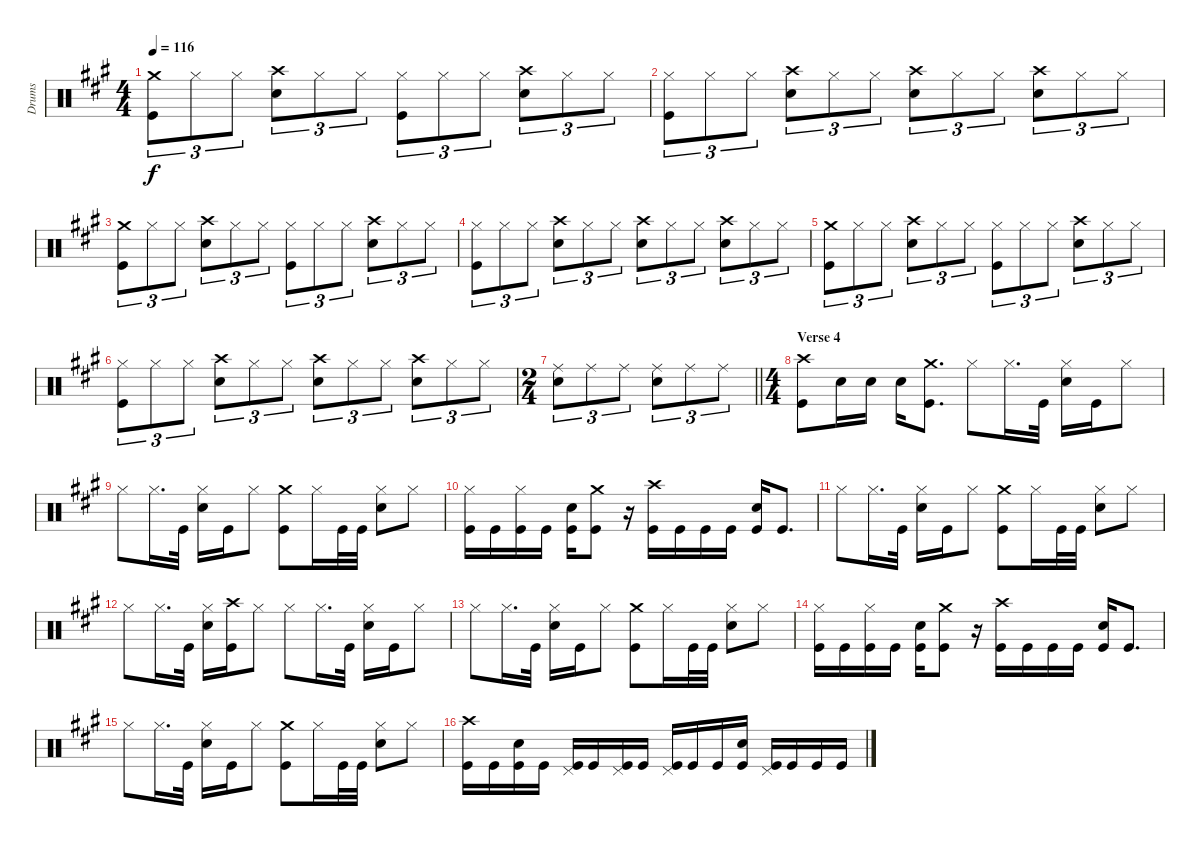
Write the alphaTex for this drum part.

\track ("Drums" "Drums") {instrument percussion}
\staff {score}
\articulation defaults
\ts (4 4)
\tempo 116
\clef neutral
\ks a
("Crash medium (hit)" "Kick (hit)").8{tu (3 2) dy f} "Hi-Hat (closed)".8{tu (3 2)} "Hi-Hat (closed)".8{tu (3 2)} ("Crash high (hit)" "Snare (hit) 2").8{tu (3 2)} "Hi-Hat (closed)".8{tu (3 2)} "Hi-Hat (closed)".8{tu (3 2)} ("Hi-Hat (closed)" "Kick (hit)").8{tu (3 2)} "Hi-Hat (closed)".8{tu (3 2)} "Hi-Hat (closed)".8{tu (3 2)} ("Crash high (hit)" "Snare (hit) 2").8{tu (3 2)} "Hi-Hat (closed)".8{tu (3 2)} "Hi-Hat (closed)".8{tu (3 2)} |
("Hi-Hat (closed)" "Kick (hit)").8{tu (3 2)} "Hi-Hat (closed)".8{tu (3 2)} "Hi-Hat (closed)".8{tu (3 2)} ("Crash high (hit)" "Snare (hit) 2").8{tu (3 2)} "Hi-Hat (closed)".8{tu (3 2)} "Hi-Hat (closed)".8{tu (3 2)} ("Crash high (hit)" "Snare (hit) 2").8{tu (3 2)} "Hi-Hat (closed)".8{tu (3 2)} "Hi-Hat (closed)".8{tu (3 2)} ("Crash high (hit)" "Snare (hit) 2").8{tu (3 2)} "Hi-Hat (closed)".8{tu (3 2)} "Hi-Hat (closed)".8{tu (3 2)} |
("Crash medium (hit)" "Kick (hit)").8{tu (3 2)} "Hi-Hat (closed)".8{tu (3 2)} "Hi-Hat (closed)".8{tu (3 2)} ("Crash high (hit)" "Snare (hit) 2").8{tu (3 2)} "Hi-Hat (closed)".8{tu (3 2)} "Hi-Hat (closed)".8{tu (3 2)} ("Hi-Hat (closed)" "Kick (hit)").8{tu (3 2)} "Hi-Hat (closed)".8{tu (3 2)} "Hi-Hat (closed)".8{tu (3 2)} ("Crash high (hit)" "Snare (hit) 2").8{tu (3 2)} "Hi-Hat (closed)".8{tu (3 2)} "Hi-Hat (closed)".8{tu (3 2)} |
("Hi-Hat (closed)" "Kick (hit)").8{tu (3 2)} "Hi-Hat (closed)".8{tu (3 2)} "Hi-Hat (closed)".8{tu (3 2)} ("Crash high (hit)" "Snare (hit) 2").8{tu (3 2)} "Hi-Hat (closed)".8{tu (3 2)} "Hi-Hat (closed)".8{tu (3 2)} ("Crash high (hit)" "Snare (hit) 2").8{tu (3 2)} "Hi-Hat (closed)".8{tu (3 2)} "Hi-Hat (closed)".8{tu (3 2)} ("Crash high (hit)" "Snare (hit) 2").8{tu (3 2)} "Hi-Hat (closed)".8{tu (3 2)} "Hi-Hat (closed)".8{tu (3 2)} |
("Crash medium (hit)" "Kick (hit)").8{tu (3 2)} "Hi-Hat (closed)".8{tu (3 2)} "Hi-Hat (closed)".8{tu (3 2)} ("Crash high (hit)" "Snare (hit) 2").8{tu (3 2)} "Hi-Hat (closed)".8{tu (3 2)} "Hi-Hat (closed)".8{tu (3 2)} ("Hi-Hat (closed)" "Kick (hit)").8{tu (3 2)} "Hi-Hat (closed)".8{tu (3 2)} "Hi-Hat (closed)".8{tu (3 2)} ("Crash high (hit)" "Snare (hit) 2").8{tu (3 2)} "Hi-Hat (closed)".8{tu (3 2)} "Hi-Hat (closed)".8{tu (3 2)} |
("Hi-Hat (closed)" "Kick (hit)").8{tu (3 2)} "Hi-Hat (closed)".8{tu (3 2)} "Hi-Hat (closed)".8{tu (3 2)} ("Crash high (hit)" "Snare (hit) 2").8{tu (3 2)} "Hi-Hat (closed)".8{tu (3 2)} "Hi-Hat (closed)".8{tu (3 2)} ("Crash high (hit)" "Snare (hit) 2").8{tu (3 2)} "Hi-Hat (closed)".8{tu (3 2)} "Hi-Hat (closed)".8{tu (3 2)} ("Crash high (hit)" "Snare (hit) 2").8{tu (3 2)} "Hi-Hat (closed)".8{tu (3 2)} "Hi-Hat (closed)".8{tu (3 2)} |
\ts (2 4)
\barLineRight lightlight
("Ride (middle)" "Snare (hit) 2").8{tu (3 2)} "Ride (middle)".8{tu (3 2)} "Ride (middle)".8{tu (3 2)} ("Ride (middle)" "Snare (hit) 2").8{tu (3 2)} "Ride (middle)".8{tu (3 2)} "Ride (middle)".8{tu (3 2)} |
\ts (4 4)
\section ("" "Verse 4")
("Crash high (hit)" "Kick (hit)").8 "Snare (hit) 2".16 "Snare (hit) 2".16 "Snare (hit) 2".16 ("Crash medium (hit)" "Kick (hit)").8{d} "Hi-Hat (closed)".8 "Hi-Hat (closed)".16{d} "Kick (hit)".32 ("Hi-Hat (closed)" "Snare (hit) 2").16 "Kick (hit)".16 "Hi-Hat (closed)".8 |
"Hi-Hat (closed)".8 "Hi-Hat (closed)".16{d} "Kick (hit)".32 ("Hi-Hat (closed)" "Snare (hit) 2").16 "Kick (hit)".16 "Hi-Hat (closed)".8 ("Crash medium (hit)" "Kick (hit)").8 "Hi-Hat (closed)".16 "Kick (hit)".32 "Kick (hit)".32 ("Hi-Hat (closed)" "Snare (hit) 2").8 "Hi-Hat (closed)".8 |
("Hi-Hat (closed)" "Kick (hit)").16 "Kick (hit)".16 ("Hi-Hat (closed)" "Kick (hit)").16 "Kick (hit)".16 ("Snare (hit) 2" "Kick (hit)").16 ("Crash medium (hit)" "Kick (hit)").8 r.16 ("Crash high (hit)" "Kick (hit)").16 "Kick (hit)".16 "Kick (hit)".16 "Kick (hit)".16 ("Snare (hit) 2" "Kick (hit)").16 "Kick (hit)".8{d} |
"Hi-Hat (closed)".8 "Hi-Hat (closed)".16{d} "Kick (hit)".32 ("Hi-Hat (closed)" "Snare (hit) 2").16 "Kick (hit)".16 "Hi-Hat (closed)".8 ("Crash medium (hit)" "Kick (hit)").8 "Hi-Hat (closed)".16 "Kick (hit)".32 "Kick (hit)".32 ("Hi-Hat (closed)" "Snare (hit) 2").8 "Hi-Hat (closed)".8 |
"Hi-Hat (closed)".8 "Hi-Hat (closed)".16{d} "Kick (hit)".32 ("Hi-Hat (closed)" "Snare (hit) 2").16 ("Crash high (hit)" "Kick (hit)").16 "Hi-Hat (closed)".8 "Hi-Hat (closed)".8 "Hi-Hat (closed)".16{d} "Kick (hit)".32 ("Hi-Hat (closed)" "Snare (hit) 2").16 "Kick (hit)".16 "Hi-Hat (closed)".8 |
"Hi-Hat (closed)".8 "Hi-Hat (closed)".16{d} "Kick (hit)".32 ("Hi-Hat (closed)" "Snare (hit) 2").16 "Kick (hit)".16 "Hi-Hat (closed)".8 ("Crash medium (hit)" "Kick (hit)").8 "Hi-Hat (closed)".16 "Kick (hit)".32 "Kick (hit)".32 ("Hi-Hat (closed)" "Snare (hit) 2").8 "Hi-Hat (closed)".8 |
("Hi-Hat (closed)" "Kick (hit)").16 "Kick (hit)".16 ("Hi-Hat (closed)" "Kick (hit)").16 "Kick (hit)".16 ("Snare (hit) 2" "Kick (hit)").16 ("Crash medium (hit)" "Kick (hit)").8 r.16 ("Crash high (hit)" "Kick (hit)").16 "Kick (hit)".16 "Kick (hit)".16 "Kick (hit)".16 ("Snare (hit) 2" "Kick (hit)").16 "Kick (hit)".8{d} |
"Hi-Hat (closed)".8 "Hi-Hat (closed)".16{d} "Kick (hit)".32 ("Hi-Hat (closed)" "Snare (hit) 2").16 "Kick (hit)".16 "Hi-Hat (closed)".8 ("Crash medium (hit)" "Kick (hit)").8 "Hi-Hat (closed)".16 "Kick (hit)".32 "Kick (hit)".32 ("Hi-Hat (closed)" "Snare (hit) 2").8 "Hi-Hat (closed)".8 |
("Crash high (hit)" "Kick (hit)").16 "Kick (hit)".16 ("Snare (hit) 2" "Kick (hit)").16 "Kick (hit)".16 ("Pedal Hi-Hat (hit)" "Kick (hit)").16 "Kick (hit)".16 ("Pedal Hi-Hat (hit)" "Kick (hit)").16 "Kick (hit)".16 ("Pedal Hi-Hat (hit)" "Kick (hit)").16 "Kick (hit)".16 "Kick (hit)".16 ("Snare (hit) 2" "Kick (hit)").16 ("Pedal Hi-Hat (hit)" "Kick (hit)").16 "Kick (hit)".16 "Kick (hit)".16 "Kick (hit)".16
